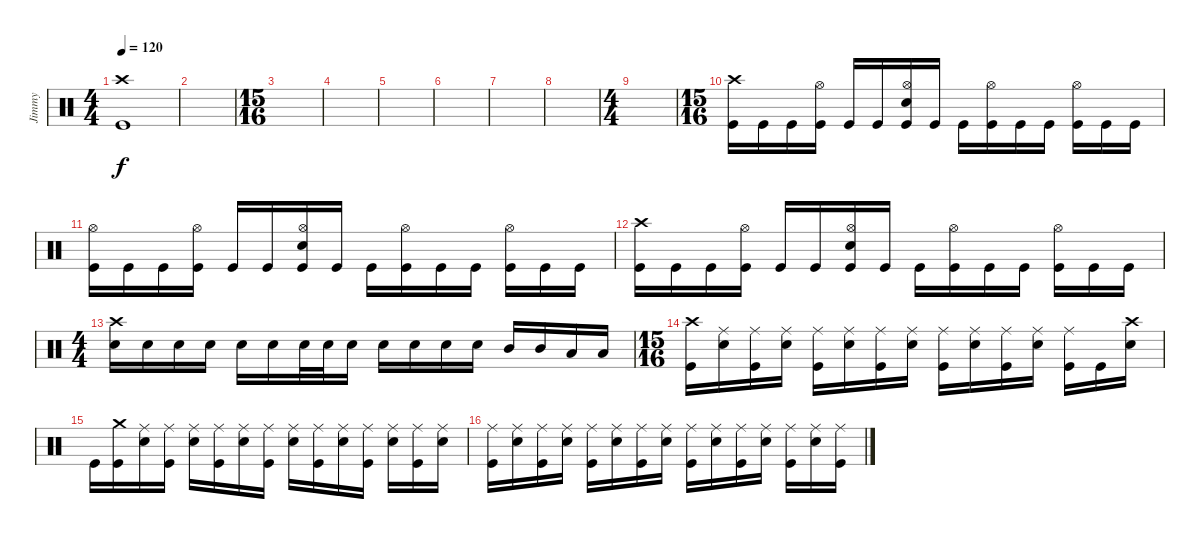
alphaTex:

\track ("Jimmy" "Jimmy") {instrument percussion}
\staff {score}
\articulation defaults
\ts (4 4)
\tempo 120
\clef neutral
\ks c
("Kick (hit)" "Crash high (hit)").1{dy f} |
|
\ts (15 16)
|
|
|
|
|
|
\ts (4 4)
|
\ts (15 16)
("Kick (hit)" "Crash high (hit)").16 "Kick (hit)".16 "Kick (hit)".16 ("Kick (hit)" "Hi-Hat (open)").16 "Kick (hit)".16 "Kick (hit)".16 ("Hi-Hat (open)" "Kick (hit)" "Snare (hit) 2").16 "Kick (hit)".16 "Kick (hit)".16 ("Kick (hit)" "Hi-Hat (open)").16 "Kick (hit)".16 "Kick (hit)".16 ("Kick (hit)" "Hi-Hat (open)").16 "Kick (hit)".16 "Kick (hit)".16 |
("Kick (hit)" "Hi-Hat (open)").16 "Kick (hit)".16 "Kick (hit)".16 ("Kick (hit)" "Hi-Hat (open)").16 "Kick (hit)".16 "Kick (hit)".16 ("Hi-Hat (open)" "Kick (hit)" "Snare (hit) 2").16 "Kick (hit)".16 "Kick (hit)".16 ("Kick (hit)" "Hi-Hat (open)").16 "Kick (hit)".16 "Kick (hit)".16 ("Kick (hit)" "Hi-Hat (open)").16 "Kick (hit)".16 "Kick (hit)".16 |
("Kick (hit)" "Crash high (hit)").16 "Kick (hit)".16 "Kick (hit)".16 ("Kick (hit)" "Hi-Hat (open)").16 "Kick (hit)".16 "Kick (hit)".16 ("Hi-Hat (open)" "Kick (hit)" "Snare (hit) 2").16 "Kick (hit)".16 "Kick (hit)".16 ("Kick (hit)" "Hi-Hat (open)").16 "Kick (hit)".16 "Kick (hit)".16 ("Kick (hit)" "Hi-Hat (open)").16 "Kick (hit)".16 "Kick (hit)".16 |
\ts (4 4)
("Snare (hit) 2" "Crash high (hit)").16 "Snare (hit) 2".16 "Snare (hit) 2".16 "Snare (hit) 2".16 "Snare (hit) 2".16 "Snare (hit) 2".16 "Snare (hit) 2".32 "Snare (hit) 2".32 "Snare (hit) 2".16 "Snare (hit) 2".16 "Snare (hit) 2".16 "Snare (hit) 2".16 "Snare (hit) 2".16 "Mid Tom (hit)".16 "Mid Tom (hit)".16 "Low Tom (hit)".16 "Low Tom (hit)".16 |
\ts (15 16)
("Crash high (hit)" "Kick (hit)").16 ("Snare (hit) 2" "Ride (middle)").16 ("Kick (hit)" "Ride (middle)").16 ("Snare (hit) 2" "Ride (middle)").16 ("Kick (hit)" "Ride (middle)").16 ("Snare (hit) 2" "Ride (middle)").16 ("Kick (hit)" "Ride (middle)").16 ("Snare (hit) 2" "Ride (middle)").16 ("Kick (hit)" "Ride (middle)").16 ("Snare (hit) 2" "Ride (middle)").16 ("Kick (hit)" "Ride (middle)").16 ("Snare (hit) 2" "Ride (middle)").16 ("Kick (hit)" "Ride (middle)").16 "Kick (hit)".16 ("Snare (hit) 2" "Crash high (hit)").16 |
"Kick (hit)".16 ("Kick (hit)" "Crash medium (hit)").16 ("Snare (hit) 2" "Ride (middle)").16 ("Kick (hit)" "Ride (middle)").16 ("Snare (hit) 2" "Ride (middle)").16 ("Kick (hit)" "Ride (middle)").16 ("Snare (hit) 2" "Ride (middle)").16 ("Kick (hit)" "Ride (middle)").16 ("Snare (hit) 2" "Ride (middle)").16 ("Kick (hit)" "Ride (middle)").16 ("Snare (hit) 2" "Ride (middle)").16 ("Kick (hit)" "Ride (middle)").16 ("Snare (hit) 2" "Ride (middle)").16 ("Kick (hit)" "Ride (middle)").16 ("Snare (hit) 2" "Ride (middle)").16 |
("Kick (hit)" "Ride (middle)").16 ("Snare (hit) 2" "Ride (middle)").16 ("Kick (hit)" "Ride (middle)").16 ("Snare (hit) 2" "Ride (middle)").16 ("Kick (hit)" "Ride (middle)").16 ("Snare (hit) 2" "Ride (middle)").16 ("Kick (hit)" "Ride (middle)").16 ("Snare (hit) 2" "Ride (middle)").16 ("Kick (hit)" "Ride (middle)").16 ("Snare (hit) 2" "Ride (middle)").16 ("Kick (hit)" "Ride (middle)").16 ("Snare (hit) 2" "Ride (middle)").16 ("Kick (hit)" "Ride (middle)").16 ("Snare (hit) 2" "Ride (middle)").16 ("Kick (hit)" "Ride (middle)").16
